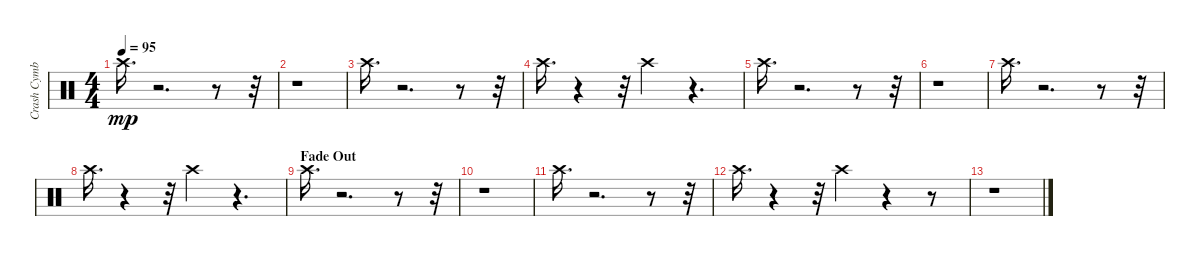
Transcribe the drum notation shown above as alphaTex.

\track ("Crash Cymbal" "Crash Cymb") {instrument percussion}
\staff {score}
\articulation defaults
\ts (4 4)
\tempo 95
\clef neutral
\ks c "Crash high (hit)".16{d dy mp}
r.2{d} r.8 r.32 |
r.1 |
"Crash high (hit)".16{d} r.2{d} r.8 r.32 |
"Crash high (hit)".16{d} r.4 r.32 "Crash high (hit)".4 r.4{d} |
"Crash high (hit)".16{d} r.2{d} r.8 r.32 |
r.1 |
"Crash high (hit)".16{d} r.2{d} r.8 r.32 |
"Crash high (hit)".16{d} r.4 r.32 "Crash high (hit)".4 r.4{d} |
\section ("" "Fade Out")
"Crash high (hit)".16{d volume 0} r.2{d} r.8 r.32 |
r.1 |
"Crash high (hit)".16{d} r.2{d} r.8 r.32 |
"Crash high (hit)".16{d} r.4 r.32 "Crash high (hit)".4 r.4 r.8 |
r.1
